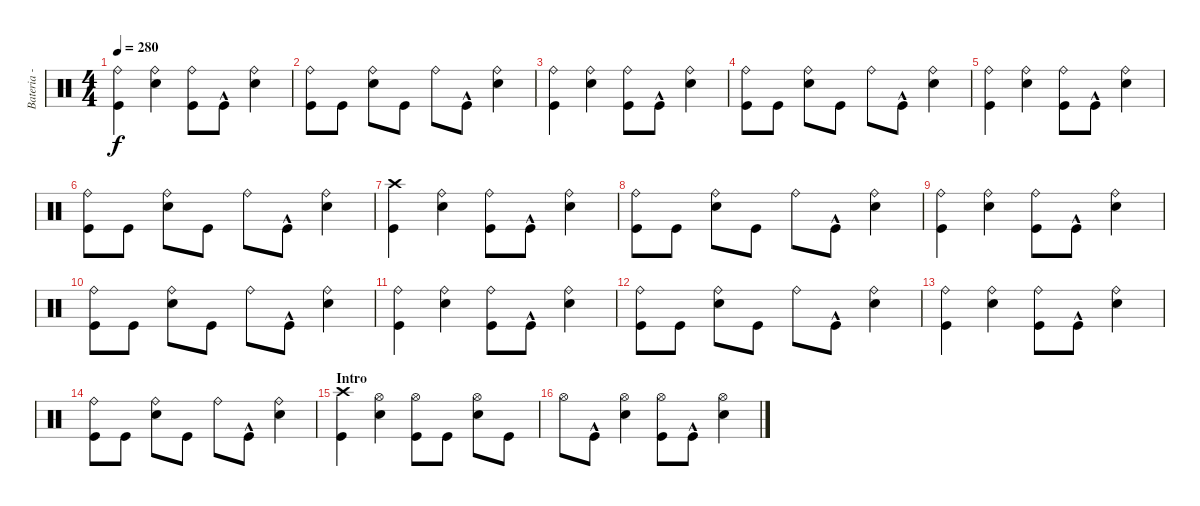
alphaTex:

\track ("Bateria - Larzon" "Bateria - ") {instrument percussion}
\staff {score}
\articulation defaults
\ts (4 4)
\tempo 280
\clef neutral
\ks c
("Kick (hit)" "Ride (bell)").4{dy f} ("Snare (hit) 2" "Ride (bell)").4 ("Kick (hit)" "Ride (bell)").8 "Kick (hit)"{hac}.8 ("Snare (hit) 2" "Ride (bell)").4 |
("Kick (hit)" "Ride (bell)").8 "Kick (hit)".8 ("Snare (hit) 2" "Ride (bell)").8 "Kick (hit)".8 "Ride (bell)".8 "Kick (hit)"{hac}.8 ("Snare (hit) 2" "Ride (bell)").4 |
("Kick (hit)" "Ride (bell)").4 ("Snare (hit) 2" "Ride (bell)").4 ("Kick (hit)" "Ride (bell)").8 "Kick (hit)"{hac}.8 ("Snare (hit) 2" "Ride (bell)").4 |
("Kick (hit)" "Ride (bell)").8 "Kick (hit)".8 ("Snare (hit) 2" "Ride (bell)").8 "Kick (hit)".8 "Ride (bell)".8 "Kick (hit)"{hac}.8 ("Snare (hit) 2" "Ride (bell)").4 |
("Kick (hit)" "Ride (bell)").4 ("Snare (hit) 2" "Ride (bell)").4 ("Kick (hit)" "Ride (bell)").8 "Kick (hit)"{hac}.8 ("Snare (hit) 2" "Ride (bell)").4 |
("Kick (hit)" "Ride (bell)").8 "Kick (hit)".8 ("Snare (hit) 2" "Ride (bell)").8 "Kick (hit)".8 "Ride (bell)".8 "Kick (hit)"{hac}.8 ("Snare (hit) 2" "Ride (bell)").4 |
("Kick (hit)" "Crash high (hit)").4 ("Snare (hit) 2" "Ride (bell)").4 ("Kick (hit)" "Ride (bell)").8 "Kick (hit)"{hac}.8 ("Snare (hit) 2" "Ride (bell)").4 |
("Kick (hit)" "Ride (bell)").8 "Kick (hit)".8 ("Snare (hit) 2" "Ride (bell)").8 "Kick (hit)".8 "Ride (bell)".8 "Kick (hit)"{hac}.8 ("Snare (hit) 2" "Ride (bell)").4 |
("Kick (hit)" "Ride (bell)").4 ("Snare (hit) 2" "Ride (bell)").4 ("Kick (hit)" "Ride (bell)").8 "Kick (hit)"{hac}.8 ("Snare (hit) 2" "Ride (bell)").4 |
("Kick (hit)" "Ride (bell)").8 "Kick (hit)".8 ("Snare (hit) 2" "Ride (bell)").8 "Kick (hit)".8 "Ride (bell)".8 "Kick (hit)"{hac}.8 ("Snare (hit) 2" "Ride (bell)").4 |
("Kick (hit)" "Ride (bell)").4 ("Snare (hit) 2" "Ride (bell)").4 ("Kick (hit)" "Ride (bell)").8 "Kick (hit)"{hac}.8 ("Snare (hit) 2" "Ride (bell)").4 |
("Kick (hit)" "Ride (bell)").8 "Kick (hit)".8 ("Snare (hit) 2" "Ride (bell)").8 "Kick (hit)".8 "Ride (bell)".8 "Kick (hit)"{hac}.8 ("Snare (hit) 2" "Ride (bell)").4 |
("Kick (hit)" "Ride (bell)").4 ("Snare (hit) 2" "Ride (bell)").4 ("Kick (hit)" "Ride (bell)").8 "Kick (hit)"{hac}.8 ("Snare (hit) 2" "Ride (bell)").4 |
("Kick (hit)" "Ride (bell)").8 "Kick (hit)".8 ("Snare (hit) 2" "Ride (bell)").8 "Kick (hit)".8 "Ride (bell)".8 "Kick (hit)"{hac}.8 ("Snare (hit) 2" "Ride (bell)").4 |
\section ("" "Intro")
("Kick (hit)" "Crash high (hit)").4 ("Snare (hit) 2" "Hi-Hat (open)").4 ("Kick (hit)" "Hi-Hat (open)").8 "Kick (hit)".8 ("Snare (hit) 2" "Hi-Hat (open)").8 "Kick (hit)".8 |
"Hi-Hat (open)".8 "Kick (hit)"{hac}.8 ("Snare (hit) 2" "Hi-Hat (open)").4 ("Kick (hit)" "Hi-Hat (open)").8 "Kick (hit)"{hac}.8 ("Snare (hit) 2" "Hi-Hat (open)").4
